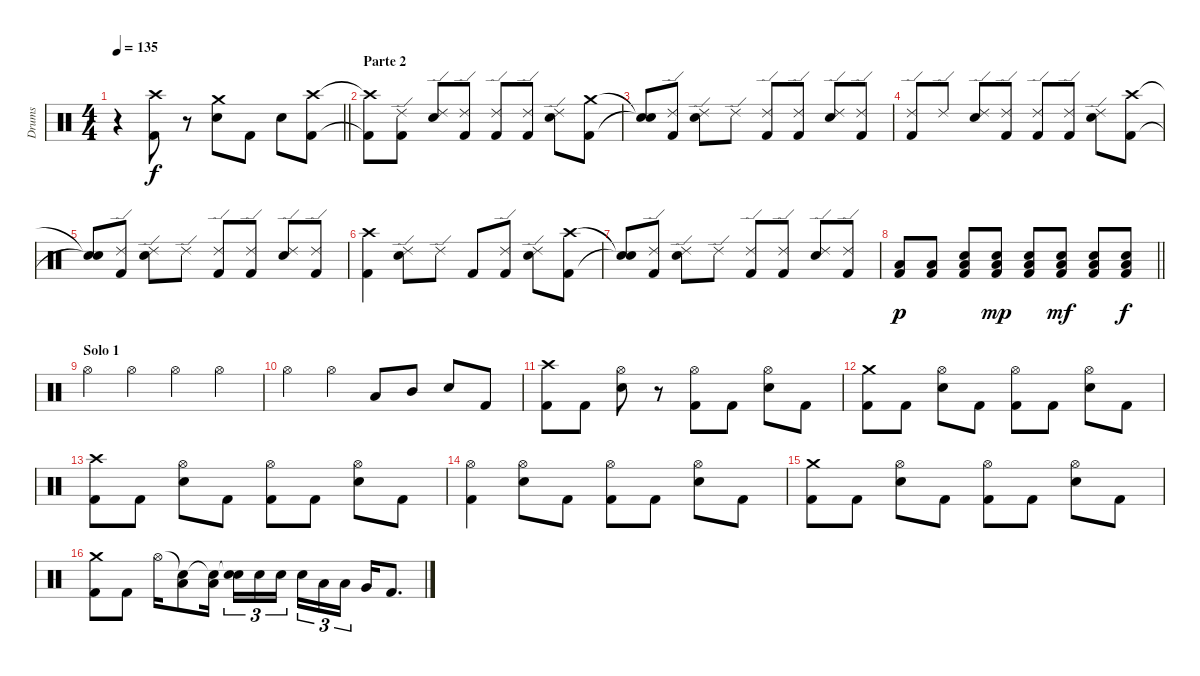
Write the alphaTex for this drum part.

\track ("Drums" "Drums") {instrument percussion}
\staff {score}
\articulation defaults
\ts (4 4)
\tempo 135
\clef neutral
\barLineRight lightlight
\ks c
r.4{dy f} ("Crash high (hit)" "Kick (hit) 2").8 r.8 ("Crash medium (hit)" "Electric Snare (hit)").8 "Kick (hit) 2".8 "Electric Snare (hit)".8 ("Crash high (hit)" "Kick (hit) 2").8 |
\section ("" "Parte 2")
("Crash high (hit)"{t} "Kick (hit) 2"{t}).8 ("Ride (edge) 2" "Kick (hit) 2").8 ("Ride (edge) 2" "Electric Snare (hit)").8 ("Ride (edge) 2" "Kick (hit) 2").8 ("Ride (edge) 2" "Kick (hit) 2").8 ("Ride (edge) 2" "Kick (hit) 2").8 ("Ride (edge) 2" "Electric Snare (hit)").8 ("Crash medium (hit)" "Kick (hit) 2").8 |
("Snare (hit)"{t} "Snare (hit)"{t}).8 ("Ride (edge) 2" "Kick (hit) 2").8 ("Ride (edge) 2" "Electric Snare (hit)").8 "Ride (edge) 2".8 ("Ride (edge) 2" "Kick (hit) 2").8 ("Ride (edge) 2" "Kick (hit) 2").8 ("Ride (edge) 2" "Electric Snare (hit)").8 ("Ride (edge) 2" "Kick (hit) 2").8 |
("Ride (edge) 2" "Kick (hit) 2").8 "Ride (edge) 2".8 ("Ride (edge) 2" "Electric Snare (hit)").8 ("Ride (edge) 2" "Kick (hit) 2").8 ("Ride (edge) 2" "Kick (hit) 2").8 ("Ride (edge) 2" "Kick (hit) 2").8 ("Ride (edge) 2" "Electric Snare (hit)").8 ("Crash high (hit)" "Kick (hit) 2").8 |
("Snare (hit)"{t} "Snare (hit)"{t}).8 ("Ride (edge) 2" "Kick (hit) 2").8 ("Ride (edge) 2" "Electric Snare (hit)").8 "Ride (edge) 2".8 ("Ride (edge) 2" "Kick (hit) 2").8 ("Ride (edge) 2" "Kick (hit) 2").8 ("Ride (edge) 2" "Electric Snare (hit)").8 ("Ride (edge) 2" "Kick (hit) 2").8 |
("Crash high (hit)" "Kick (hit) 2").4 ("Ride (edge) 2" "Electric Snare (hit)").8 "Ride (edge) 2".8 "Kick (hit) 2".8 ("Ride (edge) 2" "Kick (hit) 2").8 ("Ride (edge) 2" "Electric Snare (hit)").8 ("Crash high (hit)" "Kick (hit) 2").8 |
("Snare (hit)"{t} "Snare (hit)"{t}).8 ("Ride (edge) 2" "Kick (hit) 2").8 ("Ride (edge) 2" "Electric Snare (hit)").8 "Ride (edge) 2".8 ("Ride (edge) 2" "Kick (hit) 2").8 ("Ride (edge) 2" "Kick (hit) 2").8 ("Ride (edge) 2" "Electric Snare (hit)").8 ("Ride (edge) 2" "Kick (hit) 2").8 |
\barLineRight lightlight
("Low Tom (hit)" "Kick (hit) 2").8{dy p} ("Low Tom (hit)" "Kick (hit) 2").8 ("Electric Snare (hit)" "Low Tom (hit)" "Kick (hit) 2").8 ("Electric Snare (hit)" "Low Tom (hit)" "Kick (hit) 2").8{dy mp} ("Electric Snare (hit)" "Low Tom (hit)" "Kick (hit) 2").8 ("Electric Snare (hit)" "Low Tom (hit)" "Kick (hit) 2").8{dy mf} ("Electric Snare (hit)" "Low Tom (hit)" "Kick (hit) 2").8 ("Electric Snare (hit)" "Low Tom (hit)" "Kick (hit) 2").8{dy f} |
\section ("" "Solo 1")
"Hi-Hat (open)".4 "Hi-Hat (open)".4 "Hi-Hat (open)".4 "Hi-Hat (open)".4 |
"Hi-Hat (open)".4 "Hi-Hat (open)".4 "Low Tom (hit)".8 "Mid Tom (hit)".8 "Electric Snare (hit)".8 "Kick (hit) 2".8 |
("Crash high (hit)" "Kick (hit) 2").8 "Kick (hit) 2".8 ("Hi-Hat (open)" "Electric Snare (hit)").8 r.8 ("Hi-Hat (open)" "Kick (hit) 2").8 "Kick (hit) 2".8 ("Hi-Hat (open)" "Electric Snare (hit)").8 "Kick (hit) 2".8 |
("Crash medium (hit)" "Kick (hit) 2").8 "Kick (hit) 2".8 ("Hi-Hat (open)" "Electric Snare (hit)").8 "Kick (hit) 2".8 ("Hi-Hat (open)" "Kick (hit) 2").8 "Kick (hit) 2".8 ("Hi-Hat (open)" "Electric Snare (hit)").8 "Kick (hit) 2".8 |
("Crash high (hit)" "Kick (hit) 2").8 "Kick (hit) 2".8 ("Hi-Hat (open)" "Electric Snare (hit)").8 "Kick (hit) 2".8 ("Hi-Hat (open)" "Kick (hit) 2").8 "Kick (hit) 2".8 ("Hi-Hat (open)" "Electric Snare (hit)").8 "Kick (hit) 2".8 |
("Hi-Hat (open)" "Kick (hit) 2").4 ("Hi-Hat (open)" "Electric Snare (hit)").8 "Kick (hit) 2".8 ("Hi-Hat (open)" "Kick (hit) 2").8 "Kick (hit) 2".8 ("Hi-Hat (open)" "Electric Snare (hit)").8 "Kick (hit) 2".8 |
("Crash medium (hit)" "Kick (hit) 2").8 "Kick (hit) 2".8 ("Hi-Hat (open)" "Electric Snare (hit)").8 "Kick (hit) 2".8 ("Hi-Hat (open)" "Kick (hit) 2").8 "Kick (hit) 2".8 ("Hi-Hat (open)" "Electric Snare (hit)").8 "Kick (hit) 2".8 |
("Crash medium (hit)" "Kick (hit) 2").8 "Kick (hit) 2".8 "Hi-Hat (open)".16 ("Snare (hit)"{t} "Low Tom (hit)").8 ("Snare (hit)"{t} "Low Tom (hit)").16 ("Snare (hit)"{t} "Electric Snare (hit)").16{tu (3 2)} "Electric Snare (hit)".16{tu (3 2)} "Electric Snare (hit)".16{tu (3 2) beam splitsecondary} "Electric Snare (hit)".16{tu (3 2)} "Low Tom (hit)".16{tu (3 2)} "Low Tom (hit)".16{tu (3 2)} "Very Low Tom (hit)".16 "Kick (hit) 2".8{d}
